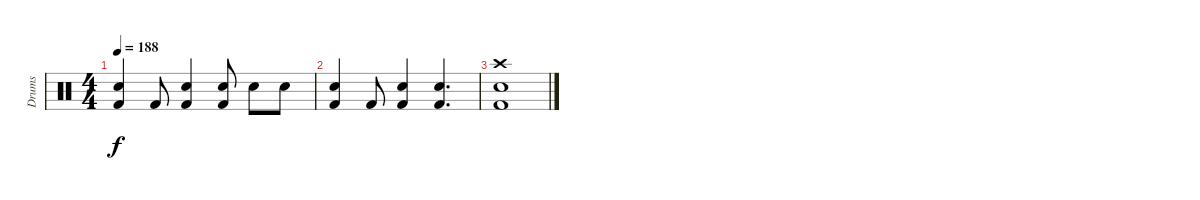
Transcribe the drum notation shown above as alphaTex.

\track ("Drums" "Drums") {instrument percussion}
\staff {score}
\articulation defaults
\ts (4 4)
\tempo 188
\clef neutral
\ks c
("Snare (hit) 2" "Kick (hit) 2").4{dy f} "Kick (hit) 2".8 ("Snare (hit) 2" "Kick (hit) 2").4 ("Snare (hit) 2" "Kick (hit) 2").8 "Snare (hit) 2".8 "Snare (hit) 2".8 |
("Snare (hit) 2" "Kick (hit) 2").4 "Kick (hit) 2".8 ("Snare (hit) 2" "Kick (hit) 2").4 ("Snare (hit) 2" "Kick (hit) 2").4{d} |
("Crash high (hit)" "Snare (hit) 2" "Kick (hit) 2").1
